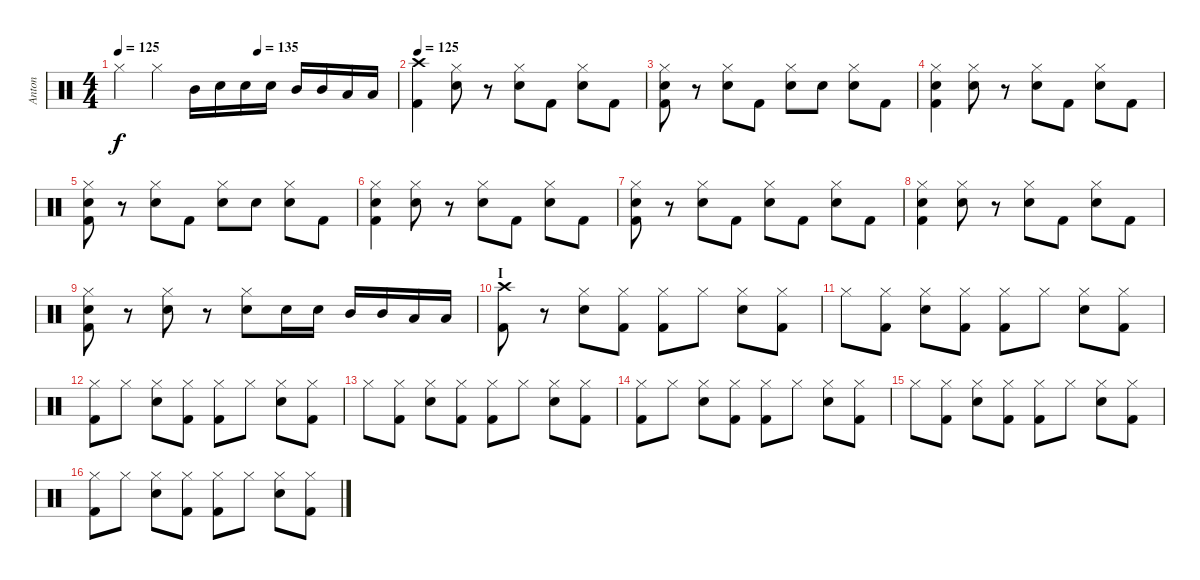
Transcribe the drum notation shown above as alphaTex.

\track ("Anton" "Anton") {instrument percussion}
\staff {score}
\articulation defaults
\ts (4 4)
\tempo 125
\tempo (135 0.5)
\tempo 125
\clef neutral
\ks c "Hi-Hat (closed)".4{dy f} "Hi-Hat (closed)".4 "Mid Tom (hit)".16 "Electric Snare (hit)".16 "Electric Snare (hit)".16 "Electric Snare (hit)".16 "Mid Tom (hit)".16 "Mid Tom (hit)".16 "Low Tom (hit)".16 "Low Tom (hit)".16
|
\tempo 125
("Kick (hit) 2" "Crash high (hit)").4 ("Electric Snare (hit)" "Hi-Hat (closed)").8 r.8 ("Electric Snare (hit)" "Hi-Hat (closed)").8 "Kick (hit) 2".8 ("Electric Snare (hit)" "Hi-Hat (closed)").8 "Kick (hit) 2".8 |
("Kick (hit) 2" "Electric Snare (hit)" "Hi-Hat (closed)").8 r.8 ("Electric Snare (hit)" "Hi-Hat (closed)").8 "Kick (hit) 2".8 ("Electric Snare (hit)" "Hi-Hat (closed)").8 "Electric Snare (hit)".8 ("Electric Snare (hit)" "Hi-Hat (closed)").8 "Kick (hit) 2".8 |
("Kick (hit) 2" "Electric Snare (hit)" "Hi-Hat (closed)").4 ("Electric Snare (hit)" "Hi-Hat (closed)").8 r.8 ("Electric Snare (hit)" "Hi-Hat (closed)").8 "Kick (hit) 2".8 ("Electric Snare (hit)" "Hi-Hat (closed)").8 "Kick (hit) 2".8 |
("Kick (hit) 2" "Electric Snare (hit)" "Hi-Hat (closed)").8 r.8 ("Electric Snare (hit)" "Hi-Hat (closed)").8 "Kick (hit) 2".8 ("Electric Snare (hit)" "Hi-Hat (closed)").8 "Electric Snare (hit)".8 ("Electric Snare (hit)" "Hi-Hat (closed)").8 "Kick (hit) 2".8 |
("Kick (hit) 2" "Electric Snare (hit)" "Hi-Hat (closed)").4 ("Electric Snare (hit)" "Hi-Hat (closed)").8 r.8 ("Electric Snare (hit)" "Hi-Hat (closed)").8 "Kick (hit) 2".8 ("Electric Snare (hit)" "Hi-Hat (closed)").8 "Kick (hit) 2".8 |
("Kick (hit) 2" "Electric Snare (hit)" "Hi-Hat (closed)").8 r.8 ("Electric Snare (hit)" "Hi-Hat (closed)").8 "Kick (hit) 2".8 ("Electric Snare (hit)" "Hi-Hat (closed)").8 "Kick (hit) 2".8 ("Electric Snare (hit)" "Hi-Hat (closed)").8 "Kick (hit) 2".8 |
("Kick (hit) 2" "Electric Snare (hit)" "Hi-Hat (closed)").4 ("Electric Snare (hit)" "Hi-Hat (closed)").8 r.8 ("Electric Snare (hit)" "Hi-Hat (closed)").8 "Kick (hit) 2".8 ("Electric Snare (hit)" "Hi-Hat (closed)").8 "Kick (hit) 2".8 |
("Kick (hit) 2" "Electric Snare (hit)" "Hi-Hat (closed)").8 r.8 ("Electric Snare (hit)" "Hi-Hat (closed)").8 r.8 ("Electric Snare (hit)" "Hi-Hat (closed)").8 "Electric Snare (hit)".16 "Electric Snare (hit)".16 "Mid Tom (hit)".16 "Mid Tom (hit)".16 "Low Tom (hit)".16 "Low Tom (hit)".16 |
\section ("" "I")
("Kick (hit) 2" "Crash high (hit)").8 r.8 ("Electric Snare (hit)" "Hi-Hat (closed)").8 ("Kick (hit) 2" "Hi-Hat (closed)").8 ("Kick (hit) 2" "Hi-Hat (closed)").8 "Hi-Hat (closed)".8 ("Electric Snare (hit)" "Hi-Hat (closed)").8 ("Kick (hit) 2" "Hi-Hat (closed)").8 |
"Hi-Hat (closed)".8 ("Kick (hit) 2" "Hi-Hat (closed)").8 ("Electric Snare (hit)" "Hi-Hat (closed)").8 ("Kick (hit) 2" "Hi-Hat (closed)").8 ("Kick (hit) 2" "Hi-Hat (closed)").8 "Hi-Hat (closed)".8 ("Electric Snare (hit)" "Hi-Hat (closed)").8 ("Kick (hit) 2" "Hi-Hat (closed)").8 |
("Kick (hit) 2" "Hi-Hat (closed)").8 "Hi-Hat (closed)".8 ("Electric Snare (hit)" "Hi-Hat (closed)").8 ("Kick (hit) 2" "Hi-Hat (closed)").8 ("Kick (hit) 2" "Hi-Hat (closed)").8 "Hi-Hat (closed)".8 ("Electric Snare (hit)" "Hi-Hat (closed)").8 ("Kick (hit) 2" "Hi-Hat (closed)").8 |
"Hi-Hat (closed)".8 ("Kick (hit) 2" "Hi-Hat (closed)").8 ("Electric Snare (hit)" "Hi-Hat (closed)").8 ("Kick (hit) 2" "Hi-Hat (closed)").8 ("Kick (hit) 2" "Hi-Hat (closed)").8 "Hi-Hat (closed)".8 ("Electric Snare (hit)" "Hi-Hat (closed)").8 ("Kick (hit) 2" "Hi-Hat (closed)").8 |
("Kick (hit) 2" "Hi-Hat (closed)").8 "Hi-Hat (closed)".8 ("Electric Snare (hit)" "Hi-Hat (closed)").8 ("Kick (hit) 2" "Hi-Hat (closed)").8 ("Kick (hit) 2" "Hi-Hat (closed)").8 "Hi-Hat (closed)".8 ("Electric Snare (hit)" "Hi-Hat (closed)").8 ("Kick (hit) 2" "Hi-Hat (closed)").8 |
"Hi-Hat (closed)".8 ("Kick (hit) 2" "Hi-Hat (closed)").8 ("Electric Snare (hit)" "Hi-Hat (closed)").8 ("Kick (hit) 2" "Hi-Hat (closed)").8 ("Kick (hit) 2" "Hi-Hat (closed)").8 "Hi-Hat (closed)".8 ("Electric Snare (hit)" "Hi-Hat (closed)").8 ("Kick (hit) 2" "Hi-Hat (closed)").8 |
("Kick (hit) 2" "Hi-Hat (closed)").8 "Hi-Hat (closed)".8 ("Electric Snare (hit)" "Hi-Hat (closed)").8 ("Kick (hit) 2" "Hi-Hat (closed)").8 ("Kick (hit) 2" "Hi-Hat (closed)").8 "Hi-Hat (closed)".8 ("Electric Snare (hit)" "Hi-Hat (closed)").8 ("Kick (hit) 2" "Hi-Hat (closed)").8
